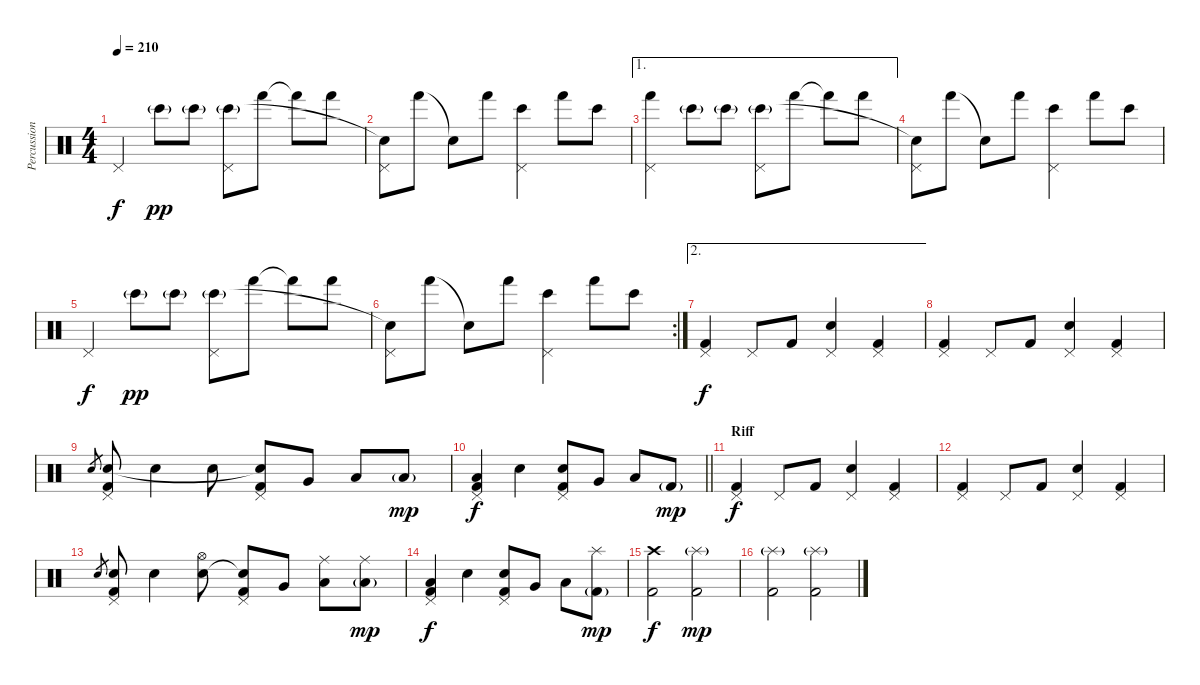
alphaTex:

\track ("Percussion" "Percussion") {instrument percussion}
\staff {score}
\articulation defaults
\ts (4 4)
\tempo 210
\clef neutral
\ks c "Pedal Hi-Hat (hit)".4{dy f} "Bongo High (hit)"{g}.8{dy pp} "Bongo High (hit)"{g}.8
("Pedal Hi-Hat (hit)" "Bongo High (hit)"{g}).8 "Hand (hit)".8 "Hand (hit)"{t}.8 "Hand (hit)".8 |
("Pedal Hi-Hat (hit)" "Snare (hit)"{t}).8 "Hand (hit)".8 "Snare (hit)"{t}.8 "Hand (hit)".8 ("Pedal Hi-Hat (hit)" "Bongo High (hit)").4 "Hand (hit)".8 "Bongo High (hit)".8 |
\ae 1
("Pedal Hi-Hat (hit)" "Hand (hit)").4 "Bongo High (hit)"{g}.8 "Bongo High (hit)"{g}.8 ("Pedal Hi-Hat (hit)" "Bongo High (hit)"{g}).8 "Hand (hit)".8 "Hand (hit)"{t}.8 "Hand (hit)".8 |
("Pedal Hi-Hat (hit)" "Snare (hit)"{t}).8 "Hand (hit)".8 "Snare (hit)"{t}.8 "Hand (hit)".8 ("Pedal Hi-Hat (hit)" "Bongo High (hit)").4 "Hand (hit)".8 "Bongo High (hit)".8 |
"Pedal Hi-Hat (hit)".4{dy f} "Bongo High (hit)"{g}.8{dy pp} "Bongo High (hit)"{g}.8 ("Pedal Hi-Hat (hit)" "Bongo High (hit)"{g}).8 "Hand (hit)".8 "Hand (hit)"{t}.8 "Hand (hit)".8 |
\rc 2
("Pedal Hi-Hat (hit)" "Snare (hit)"{t}).8 "Hand (hit)".8 "Snare (hit)"{t}.8 "Hand (hit)".8 ("Pedal Hi-Hat (hit)" "Bongo High (hit)").4 "Hand (hit)".8 "Bongo High (hit)".8 |
\ae 2
("Pedal Hi-Hat (hit)" "Kick (hit) 2").4{dy f} "Pedal Hi-Hat (hit)".8 "Kick (hit) 2".8 ("Pedal Hi-Hat (hit)" "Electric Snare (hit)").4 ("Pedal Hi-Hat (hit)" "Kick (hit) 2").4 |
("Pedal Hi-Hat (hit)" "Kick (hit) 2").4 "Pedal Hi-Hat (hit)".8 "Kick (hit) 2".8 ("Pedal Hi-Hat (hit)" "Electric Snare (hit)").4 ("Pedal Hi-Hat (hit)" "Kick (hit) 2").4 |
"Electric Snare (hit)".8{gr} ("Pedal Hi-Hat (hit)" "Electric Snare (hit)" "Kick (hit) 2").8 "Electric Snare (hit)".4 "Electric Snare (hit)".8 ("Pedal Hi-Hat (hit)" "Snare (hit)"{t} "Kick (hit) 2").8 "Very Low Tom (hit)".8 "Low Floor Tom (hit)".8 "Low Floor Tom (hit)"{g}.8{dy mp} |
\barLineRight lightlight
("Pedal Hi-Hat (hit)" "Low Floor Tom (hit)" "Kick (hit) 2").4{dy f} "Electric Snare (hit)".4 ("Pedal Hi-Hat (hit)" "Electric Snare (hit)" "Kick (hit) 2").8 "Very Low Tom (hit)".8 "Low Floor Tom (hit)".8 "Kick (hit) 2"{g}.8{dy mp} |
\section ("" "Riff")
("Pedal Hi-Hat (hit)" "Kick (hit) 2").4{dy f} "Pedal Hi-Hat (hit)".8 "Kick (hit) 2".8 ("Pedal Hi-Hat (hit)" "Electric Snare (hit)").4 ("Pedal Hi-Hat (hit)" "Kick (hit) 2").4 |
("Pedal Hi-Hat (hit)" "Kick (hit) 2").4 "Pedal Hi-Hat (hit)".8 "Kick (hit) 2".8 ("Pedal Hi-Hat (hit)" "Electric Snare (hit)").4 ("Pedal Hi-Hat (hit)" "Kick (hit) 2").4 |
"Electric Snare (hit)".8{gr} ("Pedal Hi-Hat (hit)" "Electric Snare (hit)" "Kick (hit) 2").8 "Electric Snare (hit)".4 ("Hi-Hat (open)" "Electric Snare (hit)").8 ("Pedal Hi-Hat (hit)" "Snare (hit)"{t} "Kick (hit) 2").8 "Very Low Tom (hit)".8 ("Ride (middle)" "Low Floor Tom (hit)").8 ("Ride (middle)" "Low Floor Tom (hit)"{g}).8{dy mp} |
("Pedal Hi-Hat (hit)" "Low Floor Tom (hit)" "Kick (hit) 2").4{dy f} "Electric Snare (hit)".4 ("Pedal Hi-Hat (hit)" "Electric Snare (hit)" "Kick (hit) 2").8 "Very Low Tom (hit)".8 "Low Floor Tom (hit)".8 ("Splash (hit)" "Kick (hit) 2"{g}).8{dy mp} |
("Crash high (hit)" "Kick (hit) 2").2{dy f} ("Splash (hit)"{g} "Kick (hit) 2").2{dy mp} |
("Splash (hit)"{g} "Kick (hit) 2").2 ("Splash (hit)"{g} "Kick (hit) 2").2
